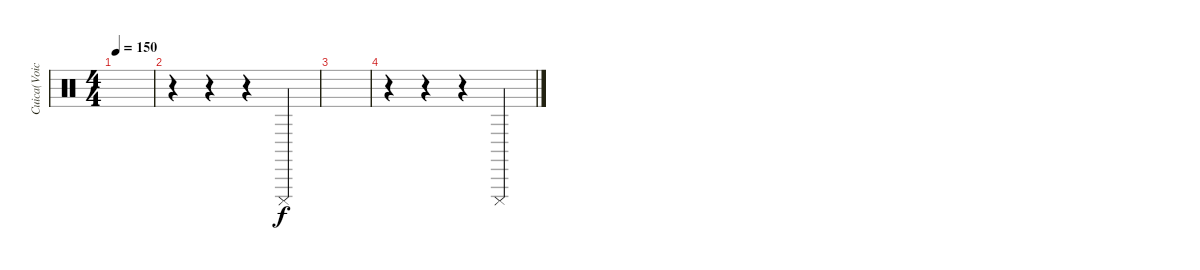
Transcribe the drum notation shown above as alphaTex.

\track ("Cuica(Voice)" "Cuica(Voic") {instrument percussion}
\staff {score}
\articulation defaults
\ts (4 4)
\tempo 150
\clef neutral
\ks c
|
r.4 r.4 r.4 "Cuica (mute)".4 |
|
r.4 r.4 r.4 "Cuica (mute)".4
